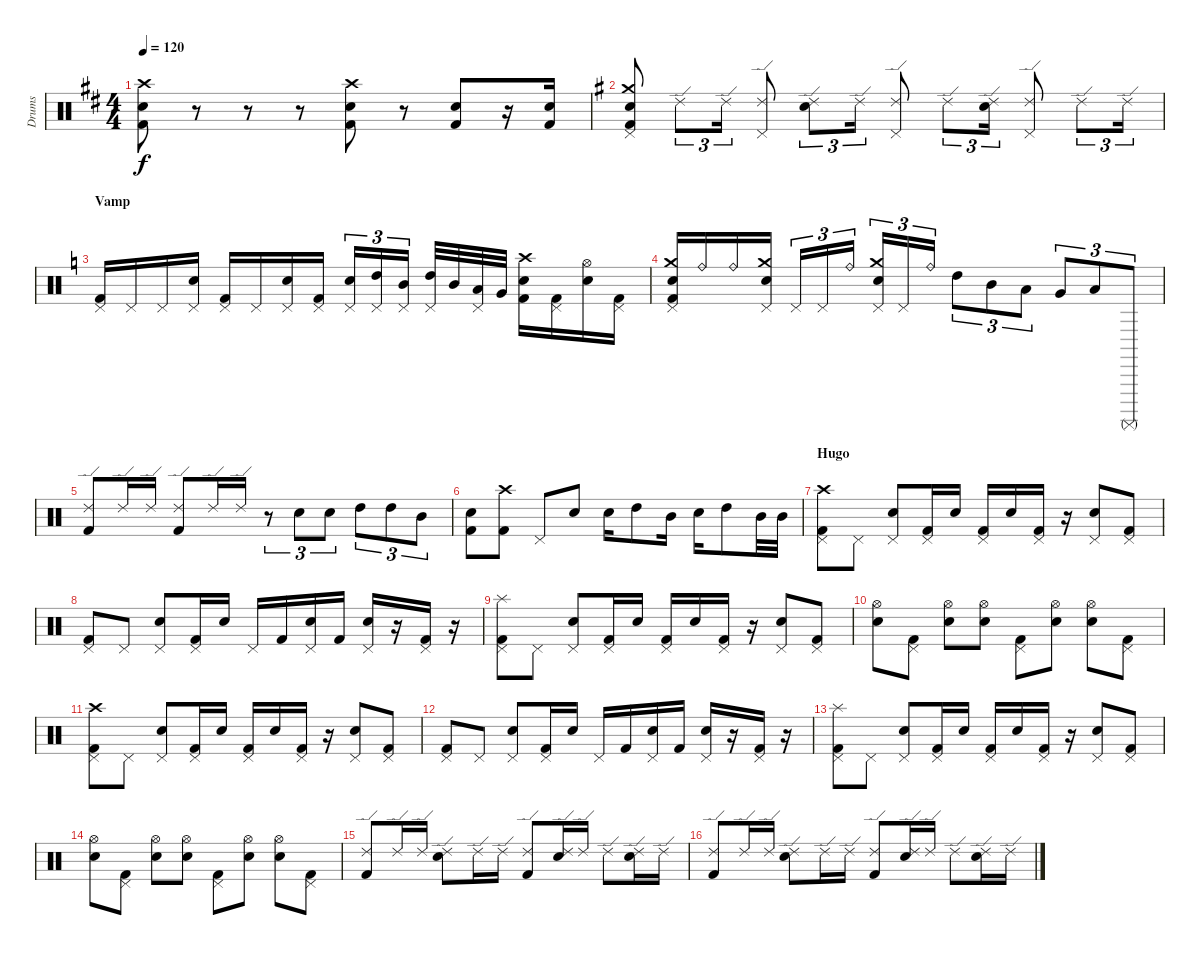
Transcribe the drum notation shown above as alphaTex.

\track ("Drums" "Drums") {instrument percussion}
\staff {score}
\articulation defaults
\ts (4 4)
\tempo 120
\clef neutral
\ks d
("Crash high (hit)" "Electric Snare (hit)" "Kick (hit) 2").8{dy f} r.8 r.8 r.8 ("Crash high (hit)" "Electric Snare (hit)" "Kick (hit) 2").8 r.8 ("Electric Snare (hit)" "Kick (hit) 2").8 r.16 ("Electric Snare (hit)" "Kick (hit) 2").16 |
\ks eminor
("Crash medium (hit)" "Pedal Hi-Hat (hit)" "Electric Snare (hit)" "Kick (hit) 2").8 "Ride (edge) 2".8{tu (3 2)} "Ride (edge) 2".16{tu (3 2)} ("Ride (edge) 2" "Pedal Hi-Hat (hit)").8 ("Ride (edge) 2" "Snare (hit) 2").8{tu (3 2)} "Ride (edge) 2".16{tu (3 2)} ("Ride (edge) 2" "Pedal Hi-Hat (hit)").8 "Ride (edge) 2".8{tu (3 2)} ("Ride (edge) 2" "Snare (hit) 2").16{tu (3 2)} ("Ride (edge) 2" "Pedal Hi-Hat (hit)").8 "Ride (edge) 2".8{tu (3 2)} "Ride (edge) 2".16{tu (3 2)} |
\section ("" "Vamp")
\ks c
("Pedal Hi-Hat (hit)" "Kick (hit) 2").16 "Pedal Hi-Hat (hit)".16 "Pedal Hi-Hat (hit)".16 ("Pedal Hi-Hat (hit)" "Electric Snare (hit)").16 ("Pedal Hi-Hat (hit)" "Kick (hit) 2").16 "Pedal Hi-Hat (hit)".16 ("Pedal Hi-Hat (hit)" "Electric Snare (hit)").16 ("Pedal Hi-Hat (hit)" "Kick (hit) 2").16 ("Pedal Hi-Hat (hit)" "Electric Snare (hit)").16{tu (3 2)} ("Pedal Hi-Hat (hit)" "High Tom (hit)").16{tu (3 2)} ("Pedal Hi-Hat (hit)" "Mid Tom (hit)").16{tu (3 2)} ("Pedal Hi-Hat (hit)" "High Tom (hit)").32 "Mid Tom (hit)".32 ("Pedal Hi-Hat (hit)" "Low Tom (hit)").32 "Very Low Tom (hit)".32 ("Crash high (hit)" "Electric Snare (hit)" "Kick (hit) 2").16 ("Pedal Hi-Hat (hit)" "Kick (hit) 2").16 ("Hi-Hat (open)" "Electric Snare (hit)").16 ("Pedal Hi-Hat (hit)" "Kick (hit) 2").16 |
("Crash medium (hit)" "Pedal Hi-Hat (hit)" "Electric Snare (hit)" "Kick (hit) 2").16 "Ride (bell)".16 "Ride (bell)".16 ("Crash medium (hit)" "Pedal Hi-Hat (hit)" "Electric Snare (hit)").16 "Pedal Hi-Hat (hit)".16{tu (3 2)} "Pedal Hi-Hat (hit)".16{tu (3 2)} "Ride (bell)".16{tu (3 2)} ("Crash medium (hit)" "Pedal Hi-Hat (hit)" "Electric Snare (hit)").16{tu (3 2)} "Pedal Hi-Hat (hit)".16{tu (3 2)} "Ride (bell)".16{tu (3 2)} "High Tom (hit)".8{tu (3 2)} "Mid Tom (hit)".8{tu (3 2)} "Low Tom (hit)".8{tu (3 2)} "Very Low Tom (hit)".8{tu (3 2)} "Low Floor Tom (hit)".8{tu (3 2)} "Surdo (mute)".8{tu (3 2)} |
("Ride (edge) 2" "Kick (hit) 2").8 "Ride (edge) 2".16 "Ride (edge) 2".16 ("Ride (edge) 2" "Kick (hit) 2").8 "Ride (edge) 2".16 "Ride (edge) 2".16 r.8{tu (3 2)} "Metronome (bell)".8{tu (3 2)} "Electric Snare (hit)".8{tu (3 2)} "High Tom (hit)".8{tu (3 2)} "High Tom (hit)".8{tu (3 2)} "Mid Tom (hit)".8{tu (3 2)} |
("Electric Snare (hit)" "Kick (hit) 2").8 ("Crash high (hit)" "Kick (hit) 2").8 "Pedal Hi-Hat (hit)".8 "Metronome (bell)".8 "Electric Snare (hit)".16 "High Tom (hit)".8 "Mid Tom (hit)".16 "Electric Snare (hit)".16 "High Tom (hit)".8 "Mid Tom (hit)".32 "Mid Tom (hit)".32 |
\section ("" "Hugo")
("Crash high (hit)" "Pedal Hi-Hat (hit)" "Kick (hit) 2").8 "Pedal Hi-Hat (hit)".8 ("Pedal Hi-Hat (hit)" "Electric Snare (hit)").8 ("Pedal Hi-Hat (hit)" "Kick (hit) 2").16 "Electric Snare (hit)".16 ("Pedal Hi-Hat (hit)" "Kick (hit) 2").16 "Electric Snare (hit)".16 ("Pedal Hi-Hat (hit)" "Kick (hit) 2").16 r.16 ("Pedal Hi-Hat (hit)" "Electric Snare (hit)").8 ("Pedal Hi-Hat (hit)" "Kick (hit) 2").8 |
("Pedal Hi-Hat (hit)" "Kick (hit) 2").8 "Pedal Hi-Hat (hit)".8 ("Pedal Hi-Hat (hit)" "Electric Snare (hit)").8 ("Pedal Hi-Hat (hit)" "Kick (hit) 2").16 "Electric Snare (hit)".16 "Pedal Hi-Hat (hit)".16 "Kick (hit) 2".16 ("Pedal Hi-Hat (hit)" "Electric Snare (hit)").16 "Kick (hit) 2".16 ("Pedal Hi-Hat (hit)" "Electric Snare (hit)").16 r.16 ("Pedal Hi-Hat (hit)" "Kick (hit) 2").16 r.16 |
("Splash (hit)" "Pedal Hi-Hat (hit)" "Kick (hit) 2").8 "Pedal Hi-Hat (hit)".8 ("Pedal Hi-Hat (hit)" "Electric Snare (hit)").8 ("Pedal Hi-Hat (hit)" "Kick (hit) 2").16 "Electric Snare (hit)".16 ("Pedal Hi-Hat (hit)" "Kick (hit) 2").16 "Electric Snare (hit)".16 ("Pedal Hi-Hat (hit)" "Kick (hit) 2").16 r.16 ("Pedal Hi-Hat (hit)" "Electric Snare (hit)").8 ("Pedal Hi-Hat (hit)" "Kick (hit) 2").8 |
("Hi-Hat (open)" "Electric Snare (hit)").8 ("Pedal Hi-Hat (hit)" "Kick (hit) 2").8 ("Hi-Hat (open)" "Electric Snare (hit)").8 ("Hi-Hat (open)" "Electric Snare (hit)").8 ("Pedal Hi-Hat (hit)" "Kick (hit) 2").8 ("Hi-Hat (open)" "Electric Snare (hit)").8 ("Hi-Hat (open)" "Electric Snare (hit)").8 ("Pedal Hi-Hat (hit)" "Kick (hit) 2").8 |
("Crash high (hit)" "Pedal Hi-Hat (hit)" "Kick (hit) 2").8 "Pedal Hi-Hat (hit)".8 ("Pedal Hi-Hat (hit)" "Electric Snare (hit)").8 ("Pedal Hi-Hat (hit)" "Kick (hit) 2").16 "Electric Snare (hit)".16 ("Pedal Hi-Hat (hit)" "Kick (hit) 2").16 "Electric Snare (hit)".16 ("Pedal Hi-Hat (hit)" "Kick (hit) 2").16 r.16 ("Pedal Hi-Hat (hit)" "Electric Snare (hit)").8 ("Pedal Hi-Hat (hit)" "Kick (hit) 2").8 |
("Pedal Hi-Hat (hit)" "Kick (hit) 2").8 "Pedal Hi-Hat (hit)".8 ("Pedal Hi-Hat (hit)" "Electric Snare (hit)").8 ("Pedal Hi-Hat (hit)" "Kick (hit) 2").16 "Electric Snare (hit)".16 "Pedal Hi-Hat (hit)".16 "Kick (hit) 2".16 ("Pedal Hi-Hat (hit)" "Electric Snare (hit)").16 "Kick (hit) 2".16 ("Pedal Hi-Hat (hit)" "Electric Snare (hit)").16 r.16 ("Pedal Hi-Hat (hit)" "Kick (hit) 2").16 r.16 |
("Splash (hit)" "Pedal Hi-Hat (hit)" "Kick (hit) 2").8 "Pedal Hi-Hat (hit)".8 ("Pedal Hi-Hat (hit)" "Electric Snare (hit)").8 ("Pedal Hi-Hat (hit)" "Kick (hit) 2").16 "Electric Snare (hit)".16 ("Pedal Hi-Hat (hit)" "Kick (hit) 2").16 "Electric Snare (hit)".16 ("Pedal Hi-Hat (hit)" "Kick (hit) 2").16 r.16 ("Pedal Hi-Hat (hit)" "Electric Snare (hit)").8 ("Pedal Hi-Hat (hit)" "Kick (hit) 2").8 |
("Hi-Hat (open)" "Electric Snare (hit)").8 ("Pedal Hi-Hat (hit)" "Kick (hit) 2").8 ("Hi-Hat (open)" "Electric Snare (hit)").8 ("Hi-Hat (open)" "Electric Snare (hit)").8 ("Pedal Hi-Hat (hit)" "Kick (hit) 2").8 ("Hi-Hat (open)" "Electric Snare (hit)").8 ("Hi-Hat (open)" "Electric Snare (hit)").8 ("Pedal Hi-Hat (hit)" "Kick (hit) 2").8 |
("Ride (edge) 2" "Kick (hit) 2").8 "Ride (edge) 2".16 "Ride (edge) 2".16 ("Ride (edge) 2" "Electric Snare (hit)").8 "Ride (edge) 2".16 "Ride (edge) 2".16 ("Ride (edge) 2" "Kick (hit) 2").8 ("Ride (edge) 2" "Electric Snare (hit)").16 "Ride (edge) 2".16 "Ride (edge) 2".8 ("Ride (edge) 2" "Electric Snare (hit)").16 "Ride (edge) 2".16 |
("Ride (edge) 2" "Kick (hit) 2").8 "Ride (edge) 2".16 "Ride (edge) 2".16 ("Ride (edge) 2" "Electric Snare (hit)").8 "Ride (edge) 2".16 "Ride (edge) 2".16 ("Ride (edge) 2" "Kick (hit) 2").8 ("Ride (edge) 2" "Electric Snare (hit)").16 "Ride (edge) 2".16 "Ride (edge) 2".8 ("Ride (edge) 2" "Electric Snare (hit)").16 "Ride (edge) 2".16
